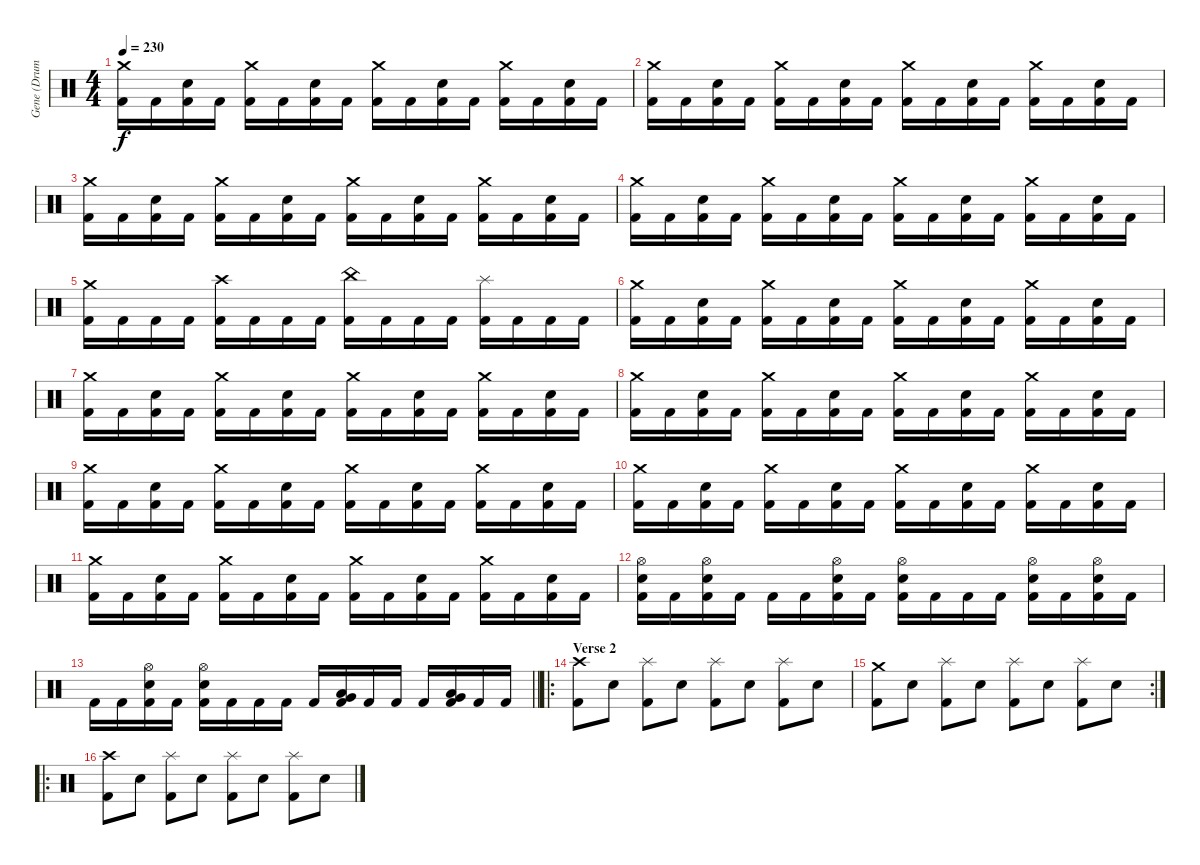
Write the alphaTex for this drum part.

\track ("Gene (Drums)" "Gene (Drum") {instrument percussion}
\staff {score}
\articulation defaults
\ts (4 4)
\tempo 230
\clef neutral
\ks c
("Crash medium (hit)" "Kick (hit) 2").16{dy f} "Kick (hit) 2".16 ("Electric Snare (hit)" "Kick (hit) 2").16 "Kick (hit) 2".16 ("Crash medium (hit)" "Kick (hit) 2").16 "Kick (hit) 2".16 ("Electric Snare (hit)" "Kick (hit) 2").16 "Kick (hit) 2".16 ("Crash medium (hit)" "Kick (hit) 2").16 "Kick (hit) 2".16 ("Electric Snare (hit)" "Kick (hit) 2").16 "Kick (hit) 2".16 ("Crash medium (hit)" "Kick (hit) 2").16 "Kick (hit) 2".16 ("Electric Snare (hit)" "Kick (hit) 2").16 "Kick (hit) 2".16 |
("Crash medium (hit)" "Kick (hit) 2").16 "Kick (hit) 2".16 ("Electric Snare (hit)" "Kick (hit) 2").16 "Kick (hit) 2".16 ("Crash medium (hit)" "Kick (hit) 2").16 "Kick (hit) 2".16 ("Electric Snare (hit)" "Kick (hit) 2").16 "Kick (hit) 2".16 ("Crash medium (hit)" "Kick (hit) 2").16 "Kick (hit) 2".16 ("Electric Snare (hit)" "Kick (hit) 2").16 "Kick (hit) 2".16 ("Crash medium (hit)" "Kick (hit) 2").16 "Kick (hit) 2".16 ("Electric Snare (hit)" "Kick (hit) 2").16 "Kick (hit) 2".16 |
("Crash medium (hit)" "Kick (hit) 2").16 "Kick (hit) 2".16 ("Electric Snare (hit)" "Kick (hit) 2").16 "Kick (hit) 2".16 ("Crash medium (hit)" "Kick (hit) 2").16 "Kick (hit) 2".16 ("Electric Snare (hit)" "Kick (hit) 2").16 "Kick (hit) 2".16 ("Crash medium (hit)" "Kick (hit) 2").16 "Kick (hit) 2".16 ("Electric Snare (hit)" "Kick (hit) 2").16 "Kick (hit) 2".16 ("Crash medium (hit)" "Kick (hit) 2").16 "Kick (hit) 2".16 ("Electric Snare (hit)" "Kick (hit) 2").16 "Kick (hit) 2".16 |
("Crash medium (hit)" "Kick (hit) 2").16 "Kick (hit) 2".16 ("Electric Snare (hit)" "Kick (hit) 2").16 "Kick (hit) 2".16 ("Crash medium (hit)" "Kick (hit) 2").16 "Kick (hit) 2".16 ("Electric Snare (hit)" "Kick (hit) 2").16 "Kick (hit) 2".16 ("Crash medium (hit)" "Kick (hit) 2").16 "Kick (hit) 2".16 ("Electric Snare (hit)" "Kick (hit) 2").16 "Kick (hit) 2".16 ("Crash medium (hit)" "Kick (hit) 2").16 "Kick (hit) 2".16 ("Electric Snare (hit)" "Kick (hit) 2").16 "Kick (hit) 2".16 |
("Crash medium (hit)" "Kick (hit) 2").16 "Kick (hit) 2".16 "Kick (hit) 2".16 "Kick (hit) 2".16 ("Crash high (hit)" "Kick (hit) 2").16 "Kick (hit) 2".16 "Kick (hit) 2".16 "Kick (hit) 2".16 ("China (hit)" "Kick (hit) 2").16 "Kick (hit) 2".16 "Kick (hit) 2".16 "Kick (hit) 2".16 ("Splash (hit)" "Kick (hit) 2").16 "Kick (hit) 2".16 "Kick (hit) 2".16 "Kick (hit) 2".16 |
("Crash medium (hit)" "Kick (hit) 2").16 "Kick (hit) 2".16 ("Electric Snare (hit)" "Kick (hit) 2").16 "Kick (hit) 2".16 ("Crash medium (hit)" "Kick (hit) 2").16 "Kick (hit) 2".16 ("Electric Snare (hit)" "Kick (hit) 2").16 "Kick (hit) 2".16 ("Crash medium (hit)" "Kick (hit) 2").16 "Kick (hit) 2".16 ("Electric Snare (hit)" "Kick (hit) 2").16 "Kick (hit) 2".16 ("Crash medium (hit)" "Kick (hit) 2").16 "Kick (hit) 2".16 ("Electric Snare (hit)" "Kick (hit) 2").16 "Kick (hit) 2".16 |
("Crash medium (hit)" "Kick (hit) 2").16 "Kick (hit) 2".16 ("Electric Snare (hit)" "Kick (hit) 2").16 "Kick (hit) 2".16 ("Crash medium (hit)" "Kick (hit) 2").16 "Kick (hit) 2".16 ("Electric Snare (hit)" "Kick (hit) 2").16 "Kick (hit) 2".16 ("Crash medium (hit)" "Kick (hit) 2").16 "Kick (hit) 2".16 ("Electric Snare (hit)" "Kick (hit) 2").16 "Kick (hit) 2".16 ("Crash medium (hit)" "Kick (hit) 2").16 "Kick (hit) 2".16 ("Electric Snare (hit)" "Kick (hit) 2").16 "Kick (hit) 2".16 |
("Crash medium (hit)" "Kick (hit) 2").16 "Kick (hit) 2".16 ("Electric Snare (hit)" "Kick (hit) 2").16 "Kick (hit) 2".16 ("Crash medium (hit)" "Kick (hit) 2").16 "Kick (hit) 2".16 ("Electric Snare (hit)" "Kick (hit) 2").16 "Kick (hit) 2".16 ("Crash medium (hit)" "Kick (hit) 2").16 "Kick (hit) 2".16 ("Electric Snare (hit)" "Kick (hit) 2").16 "Kick (hit) 2".16 ("Crash medium (hit)" "Kick (hit) 2").16 "Kick (hit) 2".16 ("Electric Snare (hit)" "Kick (hit) 2").16 "Kick (hit) 2".16 |
("Crash medium (hit)" "Kick (hit) 2").16 "Kick (hit) 2".16 ("Electric Snare (hit)" "Kick (hit) 2").16 "Kick (hit) 2".16 ("Crash medium (hit)" "Kick (hit) 2").16 "Kick (hit) 2".16 ("Electric Snare (hit)" "Kick (hit) 2").16 "Kick (hit) 2".16 ("Crash medium (hit)" "Kick (hit) 2").16 "Kick (hit) 2".16 ("Electric Snare (hit)" "Kick (hit) 2").16 "Kick (hit) 2".16 ("Crash medium (hit)" "Kick (hit) 2").16 "Kick (hit) 2".16 ("Electric Snare (hit)" "Kick (hit) 2").16 "Kick (hit) 2".16 |
("Crash medium (hit)" "Kick (hit) 2").16 "Kick (hit) 2".16 ("Electric Snare (hit)" "Kick (hit) 2").16 "Kick (hit) 2".16 ("Crash medium (hit)" "Kick (hit) 2").16 "Kick (hit) 2".16 ("Electric Snare (hit)" "Kick (hit) 2").16 "Kick (hit) 2".16 ("Crash medium (hit)" "Kick (hit) 2").16 "Kick (hit) 2".16 ("Electric Snare (hit)" "Kick (hit) 2").16 "Kick (hit) 2".16 ("Crash medium (hit)" "Kick (hit) 2").16 "Kick (hit) 2".16 ("Electric Snare (hit)" "Kick (hit) 2").16 "Kick (hit) 2".16 |
("Crash medium (hit)" "Kick (hit) 2").16 "Kick (hit) 2".16 ("Electric Snare (hit)" "Kick (hit) 2").16 "Kick (hit) 2".16 ("Crash medium (hit)" "Kick (hit) 2").16 "Kick (hit) 2".16 ("Electric Snare (hit)" "Kick (hit) 2").16 "Kick (hit) 2".16 ("Crash medium (hit)" "Kick (hit) 2").16 "Kick (hit) 2".16 ("Electric Snare (hit)" "Kick (hit) 2").16 "Kick (hit) 2".16 ("Crash medium (hit)" "Kick (hit) 2").16 "Kick (hit) 2".16 ("Electric Snare (hit)" "Kick (hit) 2").16 "Kick (hit) 2".16 |
("Hi-Hat (open)" "Electric Snare (hit)" "Kick (hit) 2").16 "Kick (hit) 2".16 ("Hi-Hat (open)" "Electric Snare (hit)" "Kick (hit) 2").16 "Kick (hit) 2".16 "Kick (hit) 2".16 "Kick (hit) 2".16 ("Hi-Hat (open)" "Electric Snare (hit)" "Kick (hit) 2").16 "Kick (hit) 2".16 ("Hi-Hat (open)" "Electric Snare (hit)" "Kick (hit) 2").16 "Kick (hit) 2".16 "Kick (hit) 2".16 "Kick (hit) 2".16 ("Hi-Hat (open)" "Electric Snare (hit)" "Kick (hit) 2").16 "Kick (hit) 2".16 ("Hi-Hat (open)" "Electric Snare (hit)" "Kick (hit) 2").16 "Kick (hit) 2".16 |
\barLineRight lightlight "Kick (hit) 2".16 "Kick (hit) 2".16
("Hi-Hat (open)" "Electric Snare (hit)" "Kick (hit) 2").16 "Kick (hit) 2".16 ("Hi-Hat (open)" "Electric Snare (hit)" "Kick (hit) 2").16 "Kick (hit) 2".16 "Kick (hit) 2".16 "Kick (hit) 2".16 "Kick (hit) 2".16 ("Very Low Tom (hit)" "Low Tom (hit)" "Kick (hit) 2").16 "Kick (hit) 2".16 "Kick (hit) 2".16 "Kick (hit) 2".16 ("Very Low Tom (hit)" "Low Tom (hit)" "Kick (hit) 2").16 "Kick (hit) 2".16 "Kick (hit) 2".16 |
\ro
\section ("" "Verse 2")
("Crash high (hit)" "Kick (hit) 2").8 "Electric Snare (hit)".8 ("Splash (hit)" "Kick (hit) 2").8 "Electric Snare (hit)".8 ("Splash (hit)" "Kick (hit) 2").8 "Electric Snare (hit)".8 ("Splash (hit)" "Kick (hit) 2").8 "Electric Snare (hit)".8 |
\rc 2
("Crash medium (hit)" "Kick (hit) 2").8 "Electric Snare (hit)".8 ("Splash (hit)" "Kick (hit) 2").8 "Electric Snare (hit)".8 ("Splash (hit)" "Kick (hit) 2").8 "Electric Snare (hit)".8 ("Splash (hit)" "Kick (hit) 2").8 "Electric Snare (hit)".8 |
\ro
("Crash high (hit)" "Kick (hit) 2").8 "Electric Snare (hit)".8 ("Splash (hit)" "Kick (hit) 2").8 "Electric Snare (hit)".8 ("Splash (hit)" "Kick (hit) 2").8 "Electric Snare (hit)".8 ("Splash (hit)" "Kick (hit) 2").8 "Electric Snare (hit)".8
